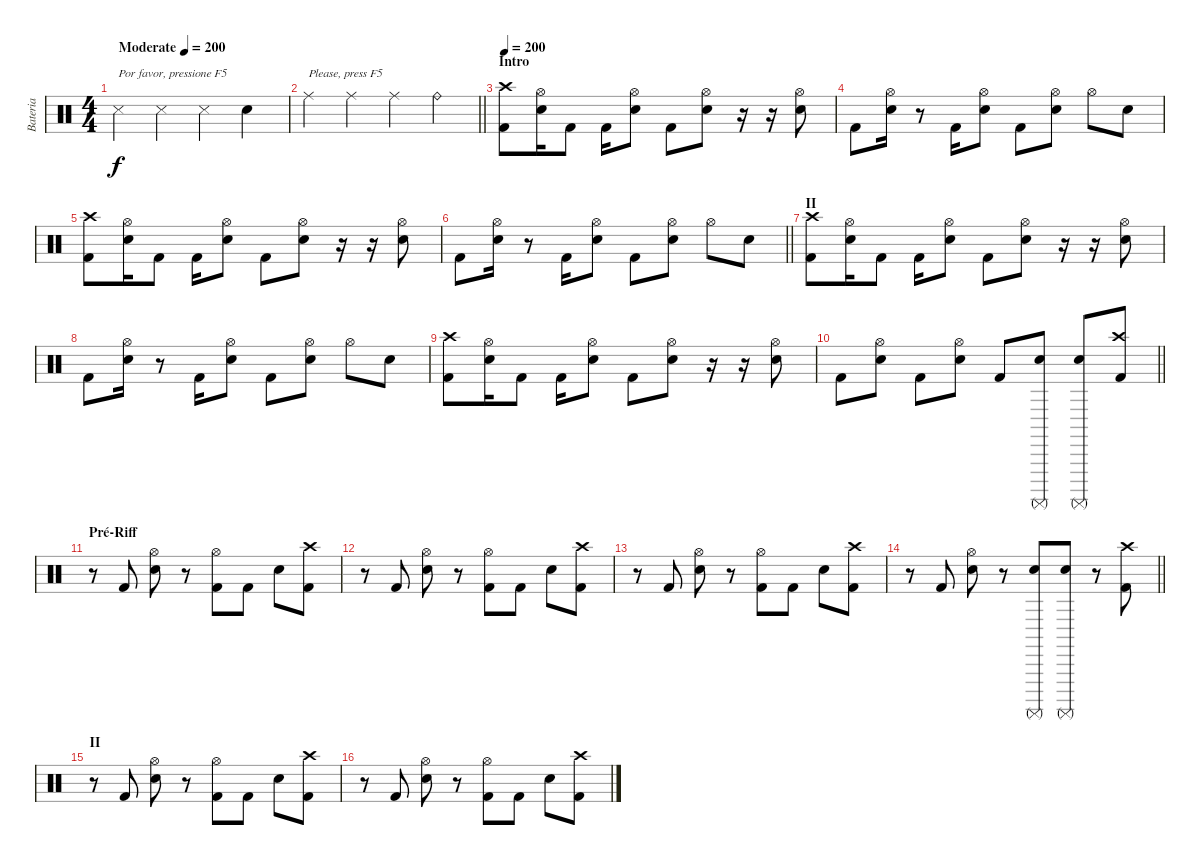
\track ("Bateria" "Bateria") {instrument percussion}
\staff {score}
\articulation defaults
\ts (4 4)
\tempo (200 "Moderate")
\clef neutral
\ks c "Metronome (hit)".4{txt "Por favor, pressione F5" dy f} "Metronome (hit)".4 "Metronome (hit)".4 "Metronome (bell)".4
|
\barLineRight lightlight "Ride (middle)".4{txt "Please, press F5"} "Ride (middle)".4 "Ride (middle)".4 "Ride (bell)".4
|
\section ("" "Intro")
\tempo 200
("Kick (hit) 2" "Crash high (hit)").8 ("Electric Snare (hit)" "Hi-Hat (open)").16 "Kick (hit) 2".8 "Kick (hit) 2".16 ("Electric Snare (hit)" "Hi-Hat (open)").8 "Kick (hit) 2".8 ("Electric Snare (hit)" "Hi-Hat (open)").8 r.16 r.16 ("Electric Snare (hit)" "Hi-Hat (open)").8 |
"Kick (hit) 2".8 ("Electric Snare (hit)" "Hi-Hat (open)").16 r.8 "Kick (hit) 2".16 ("Electric Snare (hit)" "Hi-Hat (open)").8 "Kick (hit) 2".8 ("Electric Snare (hit)" "Hi-Hat (open)").8 "Hi-Hat (open)".8 "Electric Snare (hit)".8 |
("Kick (hit) 2" "Crash high (hit)").8 ("Electric Snare (hit)" "Hi-Hat (open)").16 "Kick (hit) 2".8 "Kick (hit) 2".16 ("Electric Snare (hit)" "Hi-Hat (open)").8 "Kick (hit) 2".8 ("Electric Snare (hit)" "Hi-Hat (open)").8 r.16 r.16 ("Electric Snare (hit)" "Hi-Hat (open)").8 |
\barLineRight lightlight "Kick (hit) 2".8
("Electric Snare (hit)" "Hi-Hat (open)").16 r.8 "Kick (hit) 2".16 ("Electric Snare (hit)" "Hi-Hat (open)").8 "Kick (hit) 2".8 ("Electric Snare (hit)" "Hi-Hat (open)").8 "Hi-Hat (open)".8 "Electric Snare (hit)".8 |
\section ("" "II")
("Kick (hit) 2" "Crash high (hit)").8 ("Electric Snare (hit)" "Hi-Hat (open)").16 "Kick (hit) 2".8 "Kick (hit) 2".16 ("Electric Snare (hit)" "Hi-Hat (open)").8 "Kick (hit) 2".8 ("Electric Snare (hit)" "Hi-Hat (open)").8 r.16 r.16 ("Electric Snare (hit)" "Hi-Hat (open)").8 |
"Kick (hit) 2".8 ("Electric Snare (hit)" "Hi-Hat (open)").16 r.8 "Kick (hit) 2".16 ("Electric Snare (hit)" "Hi-Hat (open)").8 "Kick (hit) 2".8 ("Electric Snare (hit)" "Hi-Hat (open)").8 "Hi-Hat (open)".8 "Electric Snare (hit)".8 |
("Kick (hit) 2" "Crash high (hit)").8 ("Electric Snare (hit)" "Hi-Hat (open)").16 "Kick (hit) 2".8 "Kick (hit) 2".16 ("Electric Snare (hit)" "Hi-Hat (open)").8 "Kick (hit) 2".8 ("Electric Snare (hit)" "Hi-Hat (open)").8 r.16 r.16 ("Electric Snare (hit)" "Hi-Hat (open)").8 |
\barLineRight lightlight "Kick (hit) 2".8
("Electric Snare (hit)" "Hi-Hat (open)").8 "Kick (hit) 2".8 ("Electric Snare (hit)" "Hi-Hat (open)").8 "Kick (hit) 2".8 ("Electric Snare (hit)" "Surdo (mute)").8 ("Electric Snare (hit)" "Surdo (mute)").8 ("Kick (hit) 2" "Crash high (hit)").8 |
\section ("" "Pré-Riff")
r.8 "Kick (hit) 2".8 ("Electric Snare (hit)" "Hi-Hat (open)").8 r.8 ("Kick (hit) 2" "Hi-Hat (open)").8 "Kick (hit) 2".8 "Electric Snare (hit)".8 ("Kick (hit) 2" "Crash high (hit)").8 |
r.8 "Kick (hit) 2".8 ("Electric Snare (hit)" "Hi-Hat (open)").8 r.8 ("Kick (hit) 2" "Hi-Hat (open)").8 "Kick (hit) 2".8 "Electric Snare (hit)".8 ("Kick (hit) 2" "Crash high (hit)").8 |
r.8 "Kick (hit) 2".8 ("Electric Snare (hit)" "Hi-Hat (open)").8 r.8 ("Kick (hit) 2" "Hi-Hat (open)").8 "Kick (hit) 2".8 "Electric Snare (hit)".8 ("Kick (hit) 2" "Crash high (hit)").8 |
\barLineRight lightlight
r.8 "Kick (hit) 2".8 ("Electric Snare (hit)" "Hi-Hat (open)").8 r.8 ("Electric Snare (hit)" "Surdo (mute)").8 ("Electric Snare (hit)" "Surdo (mute)").8 r.8 ("Kick (hit) 2" "Crash high (hit)").8 |
\section ("" "II")
r.8 "Kick (hit) 2".8 ("Electric Snare (hit)" "Hi-Hat (open)").8 r.8 ("Kick (hit) 2" "Hi-Hat (open)").8 "Kick (hit) 2".8 "Electric Snare (hit)".8 ("Kick (hit) 2" "Crash high (hit)").8 |
r.8 "Kick (hit) 2".8 ("Electric Snare (hit)" "Hi-Hat (open)").8 r.8 ("Kick (hit) 2" "Hi-Hat (open)").8 "Kick (hit) 2".8 "Electric Snare (hit)".8 ("Kick (hit) 2" "Crash high (hit)").8
